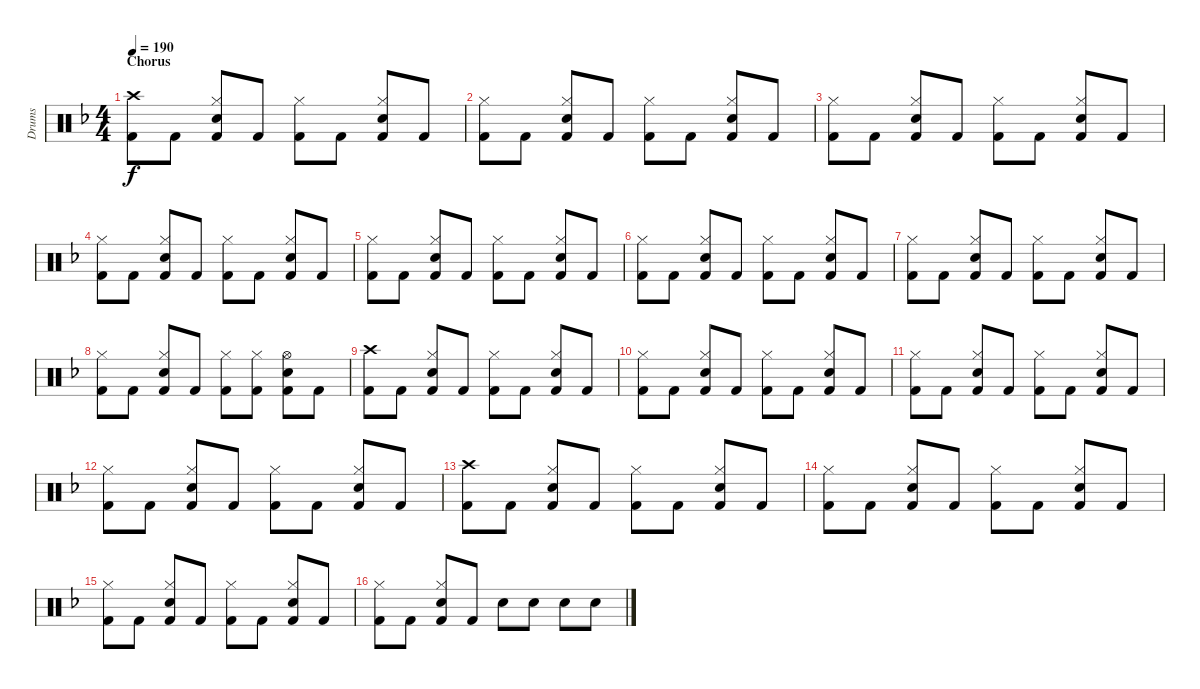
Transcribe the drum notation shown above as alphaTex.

\track ("Drums" "Drums") {instrument percussion}
\staff {score}
\articulation defaults
\ts (4 4)
\section ("" "Chorus")
\tempo 190
\clef neutral
\ks dminor
("Crash high (hit)" "Kick (hit) 2").8{dy f} "Kick (hit) 2".8 ("Hi-Hat (closed)" "Electric Snare (hit)" "Kick (hit) 2").8 "Kick (hit) 2".8 ("Hi-Hat (closed)" "Kick (hit) 2").8 "Kick (hit) 2".8 ("Hi-Hat (closed)" "Electric Snare (hit)" "Kick (hit) 2").8 "Kick (hit) 2".8 |
("Hi-Hat (closed)" "Kick (hit) 2").8 "Kick (hit) 2".8 ("Hi-Hat (closed)" "Electric Snare (hit)" "Kick (hit) 2").8 "Kick (hit) 2".8 ("Hi-Hat (closed)" "Kick (hit) 2").8 "Kick (hit) 2".8 ("Hi-Hat (closed)" "Electric Snare (hit)" "Kick (hit) 2").8 "Kick (hit) 2".8 |
("Hi-Hat (closed)" "Kick (hit) 2").8 "Kick (hit) 2".8 ("Hi-Hat (closed)" "Electric Snare (hit)" "Kick (hit) 2").8 "Kick (hit) 2".8 ("Hi-Hat (closed)" "Kick (hit) 2").8 "Kick (hit) 2".8 ("Hi-Hat (closed)" "Electric Snare (hit)" "Kick (hit) 2").8 "Kick (hit) 2".8 |
("Hi-Hat (closed)" "Kick (hit) 2").8 "Kick (hit) 2".8 ("Hi-Hat (closed)" "Electric Snare (hit)" "Kick (hit) 2").8 "Kick (hit) 2".8 ("Hi-Hat (closed)" "Kick (hit) 2").8 "Kick (hit) 2".8 ("Hi-Hat (closed)" "Electric Snare (hit)" "Kick (hit) 2").8 "Kick (hit) 2".8 |
("Hi-Hat (closed)" "Kick (hit) 2").8 "Kick (hit) 2".8 ("Hi-Hat (closed)" "Electric Snare (hit)" "Kick (hit) 2").8 "Kick (hit) 2".8 ("Hi-Hat (closed)" "Kick (hit) 2").8 "Kick (hit) 2".8 ("Hi-Hat (closed)" "Electric Snare (hit)" "Kick (hit) 2").8 "Kick (hit) 2".8 |
("Hi-Hat (closed)" "Kick (hit) 2").8 "Kick (hit) 2".8 ("Hi-Hat (closed)" "Electric Snare (hit)" "Kick (hit) 2").8 "Kick (hit) 2".8 ("Hi-Hat (closed)" "Kick (hit) 2").8 "Kick (hit) 2".8 ("Hi-Hat (closed)" "Electric Snare (hit)" "Kick (hit) 2").8 "Kick (hit) 2".8 |
("Hi-Hat (closed)" "Kick (hit) 2").8 "Kick (hit) 2".8 ("Hi-Hat (closed)" "Electric Snare (hit)" "Kick (hit) 2").8 "Kick (hit) 2".8 ("Hi-Hat (closed)" "Kick (hit) 2").8 "Kick (hit) 2".8 ("Hi-Hat (closed)" "Electric Snare (hit)" "Kick (hit) 2").8 "Kick (hit) 2".8 |
("Hi-Hat (closed)" "Kick (hit) 2").8 "Kick (hit) 2".8 ("Hi-Hat (closed)" "Electric Snare (hit)" "Kick (hit) 2").8 "Kick (hit) 2".8 ("Hi-Hat (closed)" "Kick (hit) 2").8 ("Hi-Hat (closed)" "Kick (hit) 2").8 ("Hi-Hat (open)" "Electric Snare (hit)" "Kick (hit) 2").8 "Kick (hit) 2".8 |
("Crash high (hit)" "Kick (hit) 2").8 "Kick (hit) 2".8 ("Hi-Hat (closed)" "Electric Snare (hit)" "Kick (hit) 2").8 "Kick (hit) 2".8 ("Hi-Hat (closed)" "Kick (hit) 2").8 "Kick (hit) 2".8 ("Hi-Hat (closed)" "Electric Snare (hit)" "Kick (hit) 2").8 "Kick (hit) 2".8 |
("Hi-Hat (closed)" "Kick (hit) 2").8 "Kick (hit) 2".8 ("Hi-Hat (closed)" "Electric Snare (hit)" "Kick (hit) 2").8 "Kick (hit) 2".8 ("Hi-Hat (closed)" "Kick (hit) 2").8 "Kick (hit) 2".8 ("Hi-Hat (closed)" "Electric Snare (hit)" "Kick (hit) 2").8 "Kick (hit) 2".8 |
("Hi-Hat (closed)" "Kick (hit) 2").8 "Kick (hit) 2".8 ("Hi-Hat (closed)" "Electric Snare (hit)" "Kick (hit) 2").8 "Kick (hit) 2".8 ("Hi-Hat (closed)" "Kick (hit) 2").8 "Kick (hit) 2".8 ("Hi-Hat (closed)" "Electric Snare (hit)" "Kick (hit) 2").8 "Kick (hit) 2".8 |
("Hi-Hat (closed)" "Kick (hit) 2").8 "Kick (hit) 2".8 ("Hi-Hat (closed)" "Electric Snare (hit)" "Kick (hit) 2").8 "Kick (hit) 2".8 ("Hi-Hat (closed)" "Kick (hit) 2").8 "Kick (hit) 2".8 ("Hi-Hat (closed)" "Electric Snare (hit)" "Kick (hit) 2").8 "Kick (hit) 2".8 |
("Crash high (hit)" "Kick (hit) 2").8 "Kick (hit) 2".8 ("Hi-Hat (closed)" "Electric Snare (hit)" "Kick (hit) 2").8 "Kick (hit) 2".8 ("Hi-Hat (closed)" "Kick (hit) 2").8 "Kick (hit) 2".8 ("Hi-Hat (closed)" "Electric Snare (hit)" "Kick (hit) 2").8 "Kick (hit) 2".8 |
("Hi-Hat (closed)" "Kick (hit) 2").8 "Kick (hit) 2".8 ("Hi-Hat (closed)" "Electric Snare (hit)" "Kick (hit) 2").8 "Kick (hit) 2".8 ("Hi-Hat (closed)" "Kick (hit) 2").8 "Kick (hit) 2".8 ("Hi-Hat (closed)" "Electric Snare (hit)" "Kick (hit) 2").8 "Kick (hit) 2".8 |
("Hi-Hat (closed)" "Kick (hit) 2").8 "Kick (hit) 2".8 ("Hi-Hat (closed)" "Electric Snare (hit)" "Kick (hit) 2").8 "Kick (hit) 2".8 ("Hi-Hat (closed)" "Kick (hit) 2").8 "Kick (hit) 2".8 ("Hi-Hat (closed)" "Electric Snare (hit)" "Kick (hit) 2").8 "Kick (hit) 2".8 |
("Hi-Hat (closed)" "Kick (hit) 2").8 "Kick (hit) 2".8 ("Hi-Hat (closed)" "Electric Snare (hit)" "Kick (hit) 2").8 "Kick (hit) 2".8 "Electric Snare (hit)".8 "Electric Snare (hit)".8 "Electric Snare (hit)".8 "Electric Snare (hit)".8
